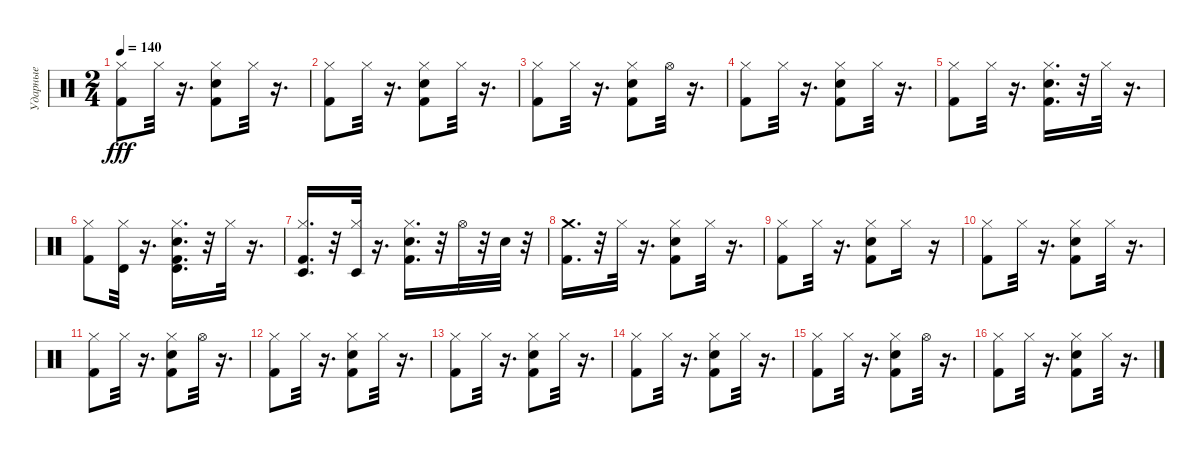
\track ("Ударные" "Ударные") {instrument percussion}
\staff {score}
\articulation defaults
\ts (2 4)
\tempo 140
\clef neutral
\ks c
("Kick (hit) 2" "Hi-Hat (closed)").8{dy fff} "Hi-Hat (closed)".32 r.16{d} ("Snare (hit) 2" "Kick (hit) 2" "Hi-Hat (closed)").8 "Hi-Hat (closed)".32 r.16{d} |
("Kick (hit) 2" "Hi-Hat (closed)").8 "Hi-Hat (closed)".32 r.16{d} ("Snare (hit) 2" "Kick (hit) 2" "Hi-Hat (closed)").8 "Hi-Hat (closed)".32 r.16{d} |
("Kick (hit) 2" "Hi-Hat (closed)").8 "Hi-Hat (closed)".32 r.16{d} ("Snare (hit) 2" "Kick (hit) 2" "Hi-Hat (closed)").8 "Hi-Hat (open)".32 r.16{d} |
("Kick (hit) 2" "Hi-Hat (closed)").8 "Hi-Hat (closed)".32 r.16{d} ("Snare (hit) 2" "Kick (hit) 2" "Hi-Hat (closed)").8 "Hi-Hat (closed)".32 r.16{d} |
("Kick (hit) 2" "Hi-Hat (closed)").8 "Hi-Hat (closed)".32 r.16{d} ("Hi-Hat (closed)" "Snare (hit) 2" "Kick (hit) 2").16{d} r.32 "Hi-Hat (closed)".32 r.16{d} |
("Kick (hit) 2" "Hi-Hat (closed)").8 ("Timbale high (hit)" "Hi-Hat (closed)").32 r.16{d} ("Snare (hit) 2" "Hi-Hat (closed)" "Kick (hit) 2" "Timbale high (hit)").16{d} r.32 "Hi-Hat (closed)".32 r.16{d} |
("Kick (hit) 2" "Timbale low (hit)" "Hi-Hat (closed)").16{d} r.32 ("Timbale low (hit)" "Hi-Hat (closed)").32 r.16{d} ("Snare (hit) 2" "Kick (hit) 2" "Hi-Hat (closed)").16{d} r.32 "Hi-Hat (open)".32 r.32 "Snare (hit) 2".32 r.32 |
("Kick (hit) 2" "Crash medium (hit)").16{d} r.32 "Hi-Hat (closed)".32 r.16{d} ("Hi-Hat (closed)" "Kick (hit) 2" "Snare (hit) 2").8 "Hi-Hat (closed)".32 r.16{d} |
("Kick (hit) 2" "Hi-Hat (closed)").8 "Hi-Hat (closed)".32 r.16{d} ("Snare (hit) 2" "Kick (hit) 2" "Hi-Hat (closed)").8 "Hi-Hat (closed)".16 r.16 |
("Kick (hit) 2" "Hi-Hat (closed)").8 "Hi-Hat (closed)".32 r.16{d} ("Hi-Hat (closed)" "Snare (hit) 2" "Kick (hit) 2").8 "Hi-Hat (closed)".32 r.16{d} |
("Kick (hit) 2" "Hi-Hat (closed)").8 "Hi-Hat (closed)".32 r.16{d} ("Snare (hit) 2" "Hi-Hat (closed)" "Kick (hit) 2").8 "Hi-Hat (open)".32 r.16{d} |
("Kick (hit) 2" "Hi-Hat (closed)").8 "Hi-Hat (closed)".32 r.16{d} ("Snare (hit) 2" "Kick (hit) 2" "Hi-Hat (closed)").8 "Hi-Hat (closed)".32 r.16{d} |
("Kick (hit) 2" "Hi-Hat (closed)").8 "Hi-Hat (closed)".32 r.16{d} ("Snare (hit) 2" "Kick (hit) 2" "Hi-Hat (closed)").8 "Hi-Hat (closed)".32 r.16{d} |
("Kick (hit) 2" "Hi-Hat (closed)").8 "Hi-Hat (closed)".32 r.16{d} ("Snare (hit) 2" "Kick (hit) 2" "Hi-Hat (closed)").8 "Hi-Hat (closed)".32 r.16{d} |
("Kick (hit) 2" "Hi-Hat (closed)").8 "Hi-Hat (closed)".32 r.16{d} ("Hi-Hat (closed)" "Snare (hit) 2" "Kick (hit) 2").8 "Hi-Hat (open)".32 r.16{d} |
("Kick (hit) 2" "Hi-Hat (closed)").8 "Hi-Hat (closed)".32 r.16{d} ("Snare (hit) 2" "Kick (hit) 2" "Hi-Hat (closed)").8 "Hi-Hat (closed)".32 r.16{d}
